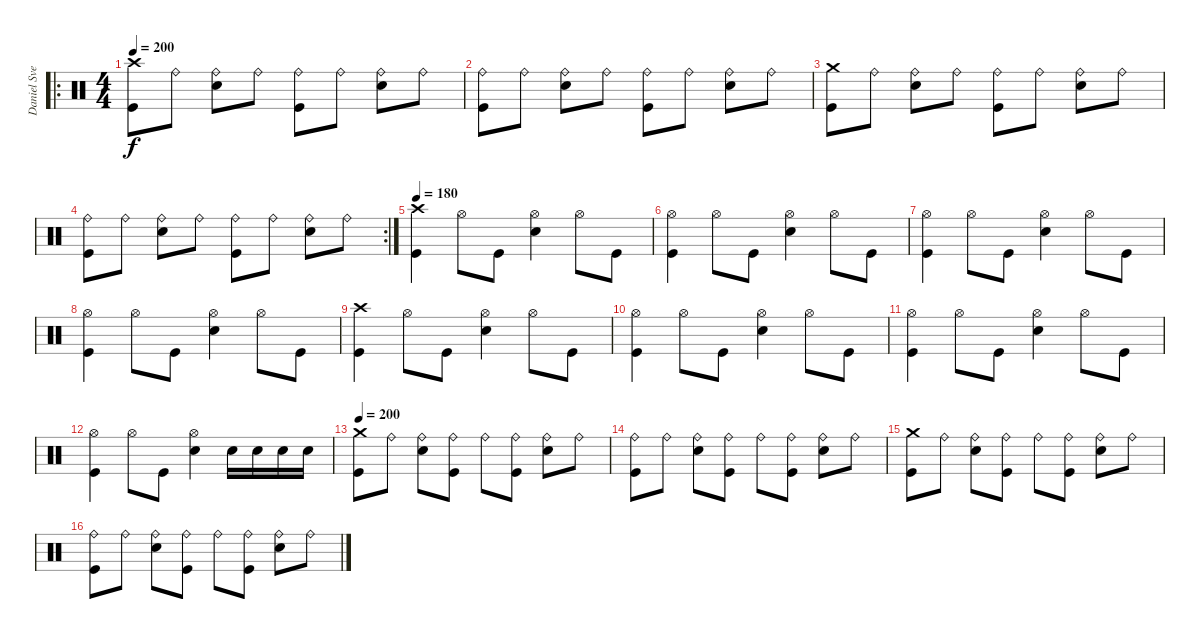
\track ("Daniel Svenson" "Daniel Sve") {instrument percussion}
\staff {score}
\articulation defaults
\ro
\ts (4 4)
\tempo 200
\clef neutral
\ks c
("Kick (hit)" "Crash high (hit)").8{dy f} "Ride (bell)".8 ("Electric Snare (hit)" "Ride (bell)").8 "Ride (bell)".8 ("Kick (hit)" "Ride (bell)").8 "Ride (bell)".8 ("Electric Snare (hit)" "Ride (bell)").8 "Ride (bell)".8 |
("Kick (hit)" "Ride (bell)").8 "Ride (bell)".8 ("Electric Snare (hit)" "Ride (bell)").8 "Ride (bell)".8 ("Kick (hit)" "Ride (bell)").8 "Ride (bell)".8 ("Electric Snare (hit)" "Ride (bell)").8 "Ride (bell)".8 |
("Kick (hit)" "Crash medium (hit)").8 "Ride (bell)".8 ("Electric Snare (hit)" "Ride (bell)").8 "Ride (bell)".8 ("Kick (hit)" "Ride (bell)").8 "Ride (bell)".8 ("Electric Snare (hit)" "Ride (bell)").8 "Ride (bell)".8 |
\rc 2
("Kick (hit)" "Ride (bell)").8 "Ride (bell)".8 ("Electric Snare (hit)" "Ride (bell)").8 "Ride (bell)".8 ("Kick (hit)" "Ride (bell)").8 "Ride (bell)".8 ("Electric Snare (hit)" "Ride (bell)").8 "Ride (bell)".8 |
\tempo 180
("Kick (hit)" "Crash high (hit)").4 "Hi-Hat (open)".8 "Kick (hit)".8 ("Electric Snare (hit)" "Hi-Hat (open)").4 "Hi-Hat (open)".8 "Kick (hit)".8 |
("Kick (hit)" "Hi-Hat (open)").4 "Hi-Hat (open)".8 "Kick (hit)".8 ("Electric Snare (hit)" "Hi-Hat (open)").4 "Hi-Hat (open)".8 "Kick (hit)".8 |
("Kick (hit)" "Hi-Hat (open)").4 "Hi-Hat (open)".8 "Kick (hit)".8 ("Electric Snare (hit)" "Hi-Hat (open)").4 "Hi-Hat (open)".8 "Kick (hit)".8 |
("Kick (hit)" "Hi-Hat (open)").4 "Hi-Hat (open)".8 "Kick (hit)".8 ("Electric Snare (hit)" "Hi-Hat (open)").4 "Hi-Hat (open)".8 "Kick (hit)".8 |
("Kick (hit)" "Crash high (hit)").4 "Hi-Hat (open)".8 "Kick (hit)".8 ("Electric Snare (hit)" "Hi-Hat (open)").4 "Hi-Hat (open)".8 "Kick (hit)".8 |
("Kick (hit)" "Hi-Hat (open)").4 "Hi-Hat (open)".8 "Kick (hit)".8 ("Electric Snare (hit)" "Hi-Hat (open)").4 "Hi-Hat (open)".8 "Kick (hit)".8 |
("Kick (hit)" "Hi-Hat (open)").4 "Hi-Hat (open)".8 "Kick (hit)".8 ("Electric Snare (hit)" "Hi-Hat (open)").4 "Hi-Hat (open)".8 "Kick (hit)".8 |
("Kick (hit)" "Hi-Hat (open)").4 "Hi-Hat (open)".8 "Kick (hit)".8 ("Electric Snare (hit)" "Hi-Hat (open)").4 "Electric Snare (hit)".16 "Electric Snare (hit)".16 "Electric Snare (hit)".16 "Electric Snare (hit)".16 |
\tempo 200
("Kick (hit)" "Crash medium (hit)").8 "Ride (bell)".8 ("Electric Snare (hit)" "Ride (bell)").8 ("Kick (hit)" "Ride (bell)").8 "Ride (bell)".8 ("Kick (hit)" "Ride (bell)").8 ("Electric Snare (hit)" "Ride (bell)").8 "Ride (bell)".8 |
("Kick (hit)" "Ride (bell)").8 "Ride (bell)".8 ("Electric Snare (hit)" "Ride (bell)").8 ("Kick (hit)" "Ride (bell)").8 "Ride (bell)".8 ("Kick (hit)" "Ride (bell)").8 ("Electric Snare (hit)" "Ride (bell)").8 "Ride (bell)".8 |
("Kick (hit)" "Crash medium (hit)").8 "Ride (bell)".8 ("Electric Snare (hit)" "Ride (bell)").8 ("Kick (hit)" "Ride (bell)").8 "Ride (bell)".8 ("Kick (hit)" "Ride (bell)").8 ("Electric Snare (hit)" "Ride (bell)").8 "Ride (bell)".8 |
("Kick (hit)" "Ride (bell)").8 "Ride (bell)".8 ("Electric Snare (hit)" "Ride (bell)").8 ("Kick (hit)" "Ride (bell)").8 "Ride (bell)".8 ("Kick (hit)" "Ride (bell)").8 ("Electric Snare (hit)" "Ride (bell)").8 "Ride (bell)".8
